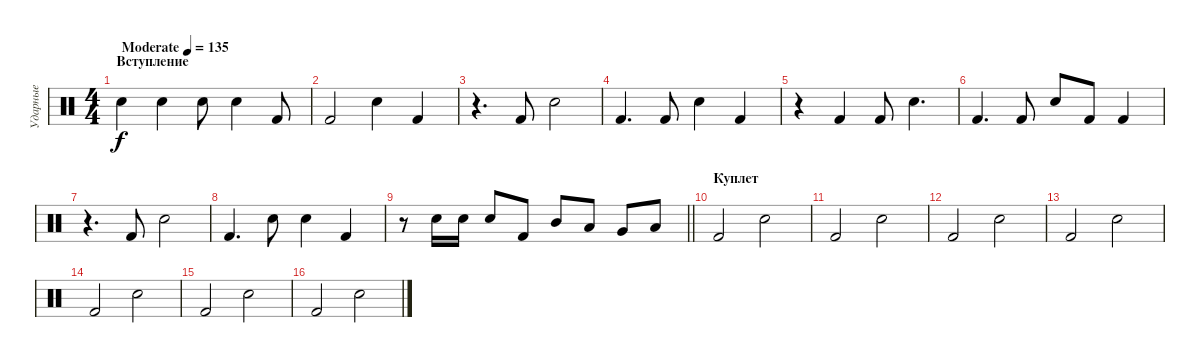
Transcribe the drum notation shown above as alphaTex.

\track ("Ударные" "Ударные") {instrument percussion}
\staff {score}
\articulation defaults
\ts (4 4)
\section ("" "Вступление")
\tempo (135 "Moderate")
\clef neutral
\ks c "Snare (hit) 2".4{dy f} "Snare (hit) 2".4 "Snare (hit) 2".8 "Snare (hit) 2".4 "Kick (hit) 2".8
|
"Kick (hit) 2".2 "Snare (hit) 2".4 "Kick (hit) 2".4 |
r.4{d} "Kick (hit) 2".8 "Snare (hit) 2".2 |
"Kick (hit) 2".4{d} "Kick (hit) 2".8 "Snare (hit) 2".4 "Kick (hit) 2".4 |
r.4 "Kick (hit) 2".4 "Kick (hit) 2".8 "Snare (hit) 2".4{d} |
"Kick (hit) 2".4{d} "Kick (hit) 2".8 "Snare (hit) 2".8 "Kick (hit) 2".8 "Kick (hit) 2".4 |
r.4{d} "Kick (hit) 2".8 "Snare (hit) 2".2 |
"Kick (hit) 2".4{d} "Snare (hit) 2".8 "Snare (hit) 2".4 "Kick (hit) 2".4 |
\barLineRight lightlight
r.8 "Snare (hit) 2".16 "Snare (hit) 2".16 "Snare (hit) 2".8 "Kick (hit) 2".8 "Mid Tom (hit)".8 "Low Tom (hit)".8 "Very Low Tom (hit)".8 "Low Floor Tom (hit)".8 |
\section ("" "Куплет")
"Kick (hit) 2".2 "Snare (hit) 2".2 |
"Kick (hit) 2".2 "Snare (hit) 2".2 |
"Kick (hit) 2".2 "Snare (hit) 2".2 |
"Kick (hit) 2".2 "Snare (hit) 2".2 |
"Kick (hit) 2".2 "Snare (hit) 2".2 |
"Kick (hit) 2".2 "Snare (hit) 2".2 |
"Kick (hit) 2".2 "Snare (hit) 2".2
